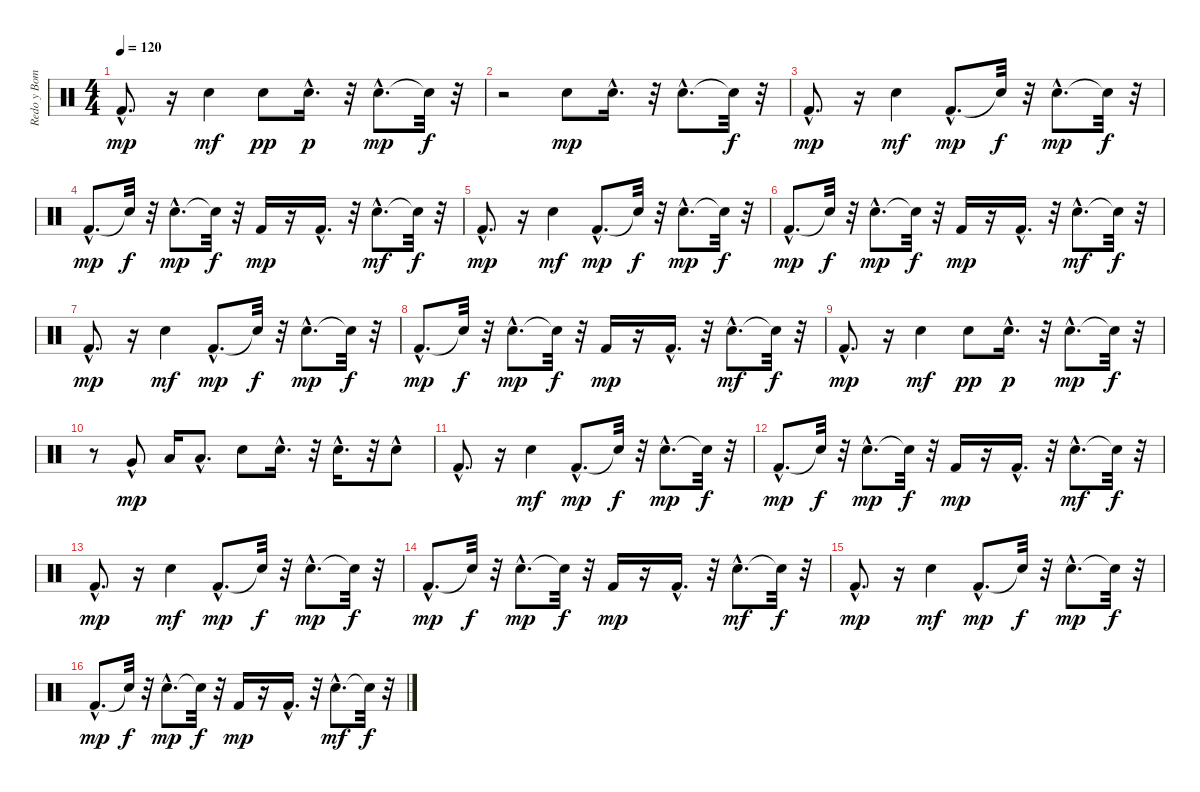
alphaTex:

\track ("Redo y Bombo" "Redo y Bom") {instrument percussion}
\staff {score}
\articulation defaults
\ts (4 4)
\tempo 120
\clef neutral
\ks c "Kick (hit) 2"{hac}.8{d dy mp}
r.16 "Snare (hit) 2".4{dy mf} "Electric Snare (hit)".8{dy pp} "Electric Snare (hit)"{hac}.16{d dy p} r.32 "Electric Snare (hit)"{hac}.8{d dy mp} "Snare (hit)"{t}.32{dy f} r.32 |
r.2 "Snare (hit) 2".8{dy mp} "Snare (hit) 2"{hac}.16{d} r.32 "Snare (hit) 2"{hac}.8{d} "Snare (hit)"{t}.32{dy f} r.32 |
"Kick (hit) 2"{hac}.8{d dy mp} r.16 "Snare (hit) 2".4{dy mf} "Kick (hit) 2"{hac}.8{d dy mp} "Snare (hit)"{t}.32{dy f} r.32 "Snare (hit) 2"{hac}.8{d dy mp} "Snare (hit)"{t}.32{dy f} r.32 |
"Kick (hit) 2"{hac}.8{d dy mp} "Snare (hit)"{t}.32{dy f} r.32 "Snare (hit) 2"{hac}.8{d dy mp} "Snare (hit)"{t}.32{dy f} r.32 "Kick (hit) 2".16{dy mp} r.16 "Kick (hit) 2"{hac}.16{d} r.32 "Snare (hit) 2"{hac}.8{d dy mf} "Snare (hit)"{t}.32{dy f} r.32 |
"Kick (hit) 2"{hac}.8{d dy mp} r.16 "Snare (hit) 2".4{dy mf} "Kick (hit) 2"{hac}.8{d dy mp} "Snare (hit)"{t}.32{dy f} r.32 "Snare (hit) 2"{hac}.8{d dy mp} "Snare (hit)"{t}.32{dy f} r.32 |
"Kick (hit) 2"{hac}.8{d dy mp} "Snare (hit)"{t}.32{dy f} r.32 "Snare (hit) 2"{hac}.8{d dy mp} "Snare (hit)"{t}.32{dy f} r.32 "Kick (hit) 2".16{dy mp} r.16 "Kick (hit) 2"{hac}.16{d} r.32 "Snare (hit) 2"{hac}.8{d dy mf} "Snare (hit)"{t}.32{dy f} r.32 |
"Kick (hit) 2"{hac}.8{d dy mp} r.16 "Snare (hit) 2".4{dy mf} "Kick (hit) 2"{hac}.8{d dy mp} "Snare (hit)"{t}.32{dy f} r.32 "Snare (hit) 2"{hac}.8{d dy mp} "Snare (hit)"{t}.32{dy f} r.32 |
"Kick (hit) 2"{hac}.8{d dy mp} "Snare (hit)"{t}.32{dy f} r.32 "Snare (hit) 2"{hac}.8{d dy mp} "Snare (hit)"{t}.32{dy f} r.32 "Kick (hit) 2".16{dy mp} r.16 "Kick (hit) 2"{hac}.16{d} r.32 "Snare (hit) 2"{hac}.8{d dy mf} "Snare (hit)"{t}.32{dy f} r.32 |
"Kick (hit) 2"{hac}.8{d dy mp} r.16 "Snare (hit) 2".4{dy mf} "Electric Snare (hit)".8{dy pp} "Electric Snare (hit)"{hac}.16{d dy p} r.32 "Electric Snare (hit)"{hac}.8{d dy mp} "Snare (hit)"{t}.32{dy f} r.32 |
r.8 "Very Low Tom (hit)"{hac}.8{dy mp} "Low Floor Tom (hit)".16 "Low Floor Tom (hit)"{hac}.8{d} "Snare (hit) 2".8 "Snare (hit) 2"{hac}.16{d} r.32 "Snare (hit) 2"{hac}.16{d} r.32 "Snare (hit) 2"{hac}.8 |
"Kick (hit) 2"{hac}.8{d} r.16 "Snare (hit) 2".4{dy mf} "Kick (hit) 2"{hac}.8{d dy mp} "Snare (hit)"{t}.32{dy f} r.32 "Snare (hit) 2"{hac}.8{d dy mp} "Snare (hit)"{t}.32{dy f} r.32 |
"Kick (hit) 2"{hac}.8{d dy mp} "Snare (hit)"{t}.32{dy f} r.32 "Snare (hit) 2"{hac}.8{d dy mp} "Snare (hit)"{t}.32{dy f} r.32 "Kick (hit) 2".16{dy mp} r.16 "Kick (hit) 2"{hac}.16{d} r.32 "Snare (hit) 2"{hac}.8{d dy mf} "Snare (hit)"{t}.32{dy f} r.32 |
"Kick (hit) 2"{hac}.8{d dy mp} r.16 "Snare (hit) 2".4{dy mf} "Kick (hit) 2"{hac}.8{d dy mp} "Snare (hit)"{t}.32{dy f} r.32 "Snare (hit) 2"{hac}.8{d dy mp} "Snare (hit)"{t}.32{dy f} r.32 |
"Kick (hit) 2"{hac}.8{d dy mp} "Snare (hit)"{t}.32{dy f} r.32 "Snare (hit) 2"{hac}.8{d dy mp} "Snare (hit)"{t}.32{dy f} r.32 "Kick (hit) 2".16{dy mp} r.16 "Kick (hit) 2"{hac}.16{d} r.32 "Snare (hit) 2"{hac}.8{d dy mf} "Snare (hit)"{t}.32{dy f} r.32 |
"Kick (hit) 2"{hac}.8{d dy mp} r.16 "Snare (hit) 2".4{dy mf} "Kick (hit) 2"{hac}.8{d dy mp} "Snare (hit)"{t}.32{dy f} r.32 "Snare (hit) 2"{hac}.8{d dy mp} "Snare (hit)"{t}.32{dy f} r.32 |
"Kick (hit) 2"{hac}.8{d dy mp} "Snare (hit)"{t}.32{dy f} r.32 "Snare (hit) 2"{hac}.8{d dy mp} "Snare (hit)"{t}.32{dy f} r.32 "Kick (hit) 2".16{dy mp} r.16 "Kick (hit) 2"{hac}.16{d} r.32 "Snare (hit) 2"{hac}.8{d dy mf} "Snare (hit)"{t}.32{dy f} r.32
